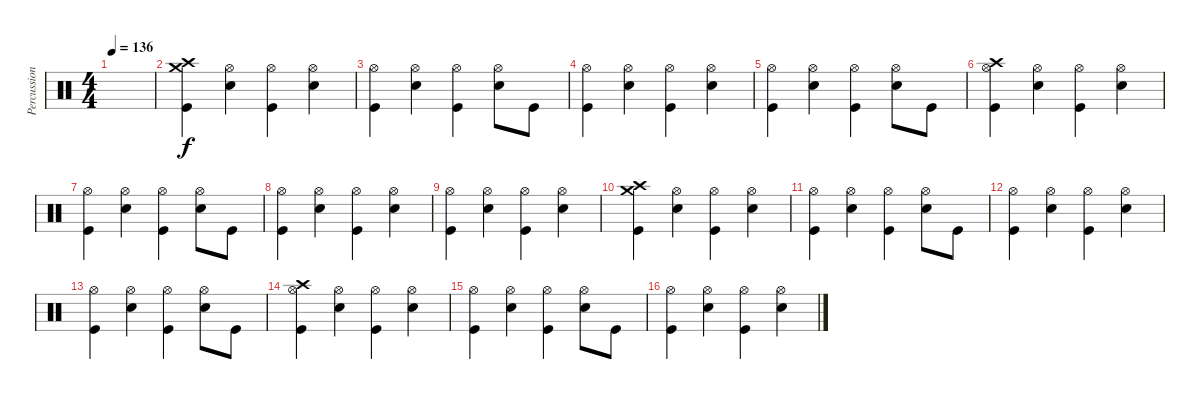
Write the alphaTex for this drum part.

\track ("Percussion" "Percussion") {instrument percussion}
\staff {score}
\articulation defaults
\ts (4 4)
\tempo 136
\clef neutral
\ks c
|
("Crash high (hit)" "Crash medium (hit)" "Kick (hit)").4 ("Hi-Hat (open)" "Electric Snare (hit)").4 ("Hi-Hat (open)" "Kick (hit)").4 ("Hi-Hat (open)" "Electric Snare (hit)").4 |
("Hi-Hat (open)" "Kick (hit)").4 ("Hi-Hat (open)" "Electric Snare (hit)").4 ("Hi-Hat (open)" "Kick (hit)").4 ("Hi-Hat (open)" "Electric Snare (hit)").8 "Kick (hit)".8 |
("Hi-Hat (open)" "Kick (hit)").4 ("Hi-Hat (open)" "Electric Snare (hit)").4 ("Hi-Hat (open)" "Kick (hit)").4 ("Hi-Hat (open)" "Electric Snare (hit)").4 |
("Hi-Hat (open)" "Kick (hit)").4 ("Hi-Hat (open)" "Electric Snare (hit)").4 ("Hi-Hat (open)" "Kick (hit)").4 ("Hi-Hat (open)" "Electric Snare (hit)").8 "Kick (hit)".8 |
("Crash high (hit)" "Hi-Hat (open)" "Kick (hit)").4 ("Hi-Hat (open)" "Electric Snare (hit)").4 ("Hi-Hat (open)" "Kick (hit)").4 ("Hi-Hat (open)" "Electric Snare (hit)").4 |
("Hi-Hat (open)" "Kick (hit)").4 ("Hi-Hat (open)" "Electric Snare (hit)").4 ("Hi-Hat (open)" "Kick (hit)").4 ("Hi-Hat (open)" "Electric Snare (hit)").8 "Kick (hit)".8 |
("Hi-Hat (open)" "Kick (hit)").4 ("Hi-Hat (open)" "Electric Snare (hit)").4 ("Hi-Hat (open)" "Kick (hit)").4 ("Hi-Hat (open)" "Electric Snare (hit)").4 |
("Hi-Hat (open)" "Kick (hit)").4 ("Hi-Hat (open)" "Electric Snare (hit)").4 ("Hi-Hat (open)" "Kick (hit)").4 ("Hi-Hat (open)" "Electric Snare (hit)").4 |
("Crash high (hit)" "Crash medium (hit)" "Kick (hit)").4 ("Hi-Hat (open)" "Electric Snare (hit)").4 ("Hi-Hat (open)" "Kick (hit)").4 ("Hi-Hat (open)" "Electric Snare (hit)").4 |
("Hi-Hat (open)" "Kick (hit)").4 ("Hi-Hat (open)" "Electric Snare (hit)").4 ("Hi-Hat (open)" "Kick (hit)").4 ("Hi-Hat (open)" "Electric Snare (hit)").8 "Kick (hit)".8 |
("Hi-Hat (open)" "Kick (hit)").4 ("Hi-Hat (open)" "Electric Snare (hit)").4 ("Hi-Hat (open)" "Kick (hit)").4 ("Hi-Hat (open)" "Electric Snare (hit)").4 |
("Hi-Hat (open)" "Kick (hit)").4 ("Hi-Hat (open)" "Electric Snare (hit)").4 ("Hi-Hat (open)" "Kick (hit)").4 ("Hi-Hat (open)" "Electric Snare (hit)").8 "Kick (hit)".8 |
("Crash high (hit)" "Hi-Hat (open)" "Kick (hit)").4 ("Hi-Hat (open)" "Electric Snare (hit)").4 ("Hi-Hat (open)" "Kick (hit)").4 ("Hi-Hat (open)" "Electric Snare (hit)").4 |
("Hi-Hat (open)" "Kick (hit)").4 ("Hi-Hat (open)" "Electric Snare (hit)").4 ("Hi-Hat (open)" "Kick (hit)").4 ("Hi-Hat (open)" "Electric Snare (hit)").8 "Kick (hit)".8 |
("Hi-Hat (open)" "Kick (hit)").4 ("Hi-Hat (open)" "Electric Snare (hit)").4 ("Hi-Hat (open)" "Kick (hit)").4 ("Hi-Hat (open)" "Electric Snare (hit)").4
